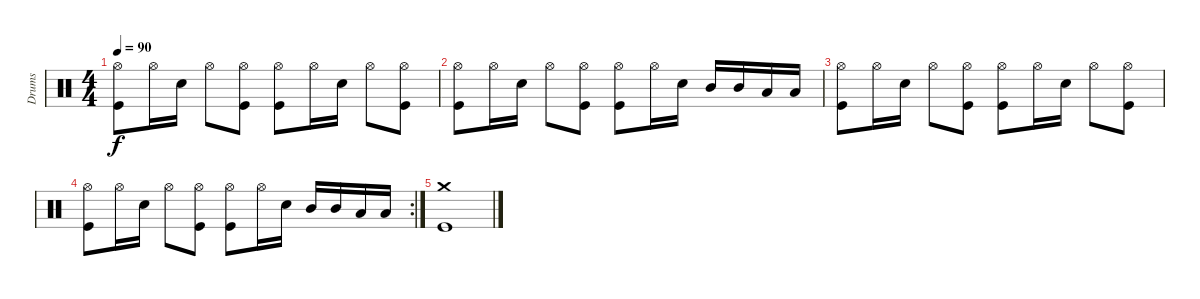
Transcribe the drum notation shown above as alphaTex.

\track ("Drums" "Drums") {instrument percussion}
\staff {score}
\articulation defaults
\ts (4 4)
\tempo 90
\clef neutral
\ks c
("Hi-Hat (open)" "Kick (hit)").8{dy f} "Hi-Hat (open)".16 "Snare (hit) 2".16 "Hi-Hat (open)".8 ("Hi-Hat (open)" "Kick (hit)").8 ("Hi-Hat (open)" "Kick (hit)").8 "Hi-Hat (open)".16 "Snare (hit) 2".16 "Hi-Hat (open)".8 ("Hi-Hat (open)" "Kick (hit)").8 |
("Hi-Hat (open)" "Kick (hit)").8 "Hi-Hat (open)".16 "Snare (hit) 2".16 "Hi-Hat (open)".8 ("Hi-Hat (open)" "Kick (hit)").8 ("Hi-Hat (open)" "Kick (hit)").8 "Hi-Hat (open)".16 "Snare (hit) 2".16 "Mid Tom (hit)".16 "Mid Tom (hit)".16 "Low Tom (hit)".16 "Low Tom (hit)".16 |
("Hi-Hat (open)" "Kick (hit)").8 "Hi-Hat (open)".16 "Snare (hit) 2".16 "Hi-Hat (open)".8 ("Hi-Hat (open)" "Kick (hit)").8 ("Hi-Hat (open)" "Kick (hit)").8 "Hi-Hat (open)".16 "Snare (hit) 2".16 "Hi-Hat (open)".8 ("Hi-Hat (open)" "Kick (hit)").8 |
\rc 2
("Hi-Hat (open)" "Kick (hit)").8 "Hi-Hat (open)".16 "Snare (hit) 2".16 "Hi-Hat (open)".8 ("Hi-Hat (open)" "Kick (hit)").8 ("Hi-Hat (open)" "Kick (hit)").8 "Hi-Hat (open)".16 "Snare (hit) 2".16 "Mid Tom (hit)".16 "Mid Tom (hit)".16 "Low Tom (hit)".16 "Low Tom (hit)".16 |
("Crash medium (hit)" "Kick (hit)").1
